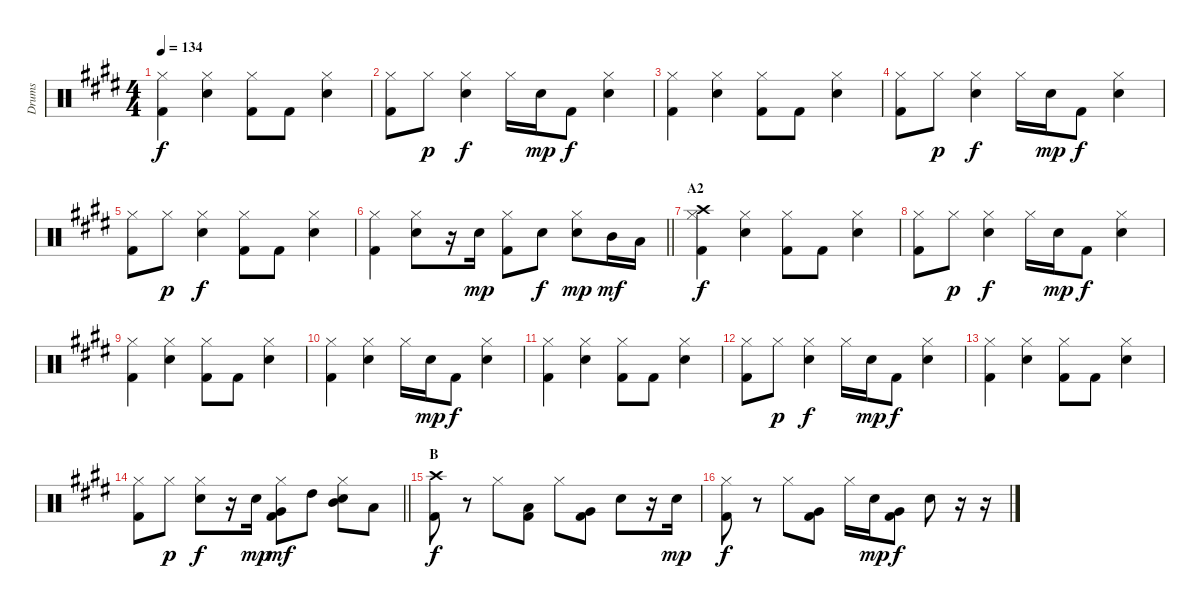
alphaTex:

\track ("Drums" "Drums") {instrument percussion}
\staff {score}
\articulation defaults
\ts (4 4)
\tempo 134
\clef neutral
\ks e
("Hi-Hat (closed)" "Kick (hit) 2").4{dy f} ("Hi-Hat (closed)" "Electric Snare (hit)").4 ("Hi-Hat (closed)" "Kick (hit) 2").8 "Kick (hit) 2".8 ("Hi-Hat (closed)" "Electric Snare (hit)").4 |
("Hi-Hat (closed)" "Kick (hit) 2").8 "Hi-Hat (closed)".8{dy p} ("Hi-Hat (closed)" "Electric Snare (hit)").4{dy f} "Hi-Hat (closed)".16 "Electric Snare (hit)".16{dy mp} "Kick (hit) 2".8{dy f} ("Hi-Hat (closed)" "Electric Snare (hit)").4 |
("Hi-Hat (closed)" "Kick (hit) 2").4 ("Hi-Hat (closed)" "Electric Snare (hit)").4 ("Hi-Hat (closed)" "Kick (hit) 2").8 "Kick (hit) 2".8 ("Hi-Hat (closed)" "Electric Snare (hit)").4 |
("Hi-Hat (closed)" "Kick (hit) 2").8 "Hi-Hat (closed)".8{dy p} ("Hi-Hat (closed)" "Electric Snare (hit)").4{dy f} "Hi-Hat (closed)".16 "Electric Snare (hit)".16{dy mp} "Kick (hit) 2".8{dy f} ("Hi-Hat (closed)" "Electric Snare (hit)").4 |
("Hi-Hat (closed)" "Kick (hit) 2").8 "Hi-Hat (closed)".8{dy p} ("Hi-Hat (closed)" "Electric Snare (hit)").4{dy f} ("Hi-Hat (closed)" "Kick (hit) 2").8 "Kick (hit) 2".8 ("Hi-Hat (closed)" "Electric Snare (hit)").4 |
\barLineRight lightlight
("Hi-Hat (closed)" "Kick (hit) 2").4 ("Hi-Hat (closed)" "Electric Snare (hit)").8 r.16 "Electric Snare (hit)".16{dy mp} ("Hi-Hat (closed)" "Kick (hit) 2").8 "Electric Snare (hit)".8{dy f} ("Hi-Hat (closed)" "Electric Snare (hit)").8{dy mp} "Mid Tom (hit)".16{dy mf} "Low Tom (hit)".16 |
\section ("" "A2")
("Hi-Hat (closed)" "Crash high (hit)" "Kick (hit) 2").4{dy f} ("Hi-Hat (closed)" "Electric Snare (hit)").4 ("Hi-Hat (closed)" "Kick (hit) 2").8 "Kick (hit) 2".8 ("Hi-Hat (closed)" "Electric Snare (hit)").4 |
("Hi-Hat (closed)" "Kick (hit) 2").8 "Hi-Hat (closed)".8{dy p} ("Hi-Hat (closed)" "Electric Snare (hit)").4{dy f} "Hi-Hat (closed)".16 "Electric Snare (hit)".16{dy mp} "Kick (hit) 2".8{dy f} ("Hi-Hat (closed)" "Electric Snare (hit)").4 |
("Hi-Hat (closed)" "Kick (hit) 2").4 ("Hi-Hat (closed)" "Electric Snare (hit)").4 ("Hi-Hat (closed)" "Kick (hit) 2").8 "Kick (hit) 2".8 ("Hi-Hat (closed)" "Electric Snare (hit)").4 |
("Hi-Hat (closed)" "Kick (hit) 2").4 ("Hi-Hat (closed)" "Electric Snare (hit)").4 "Hi-Hat (closed)".16 "Electric Snare (hit)".16{dy mp} "Kick (hit) 2".8{dy f} ("Hi-Hat (closed)" "Electric Snare (hit)").4 |
("Hi-Hat (closed)" "Kick (hit) 2").4 ("Hi-Hat (closed)" "Electric Snare (hit)").4 ("Hi-Hat (closed)" "Kick (hit) 2").8 "Kick (hit) 2".8 ("Hi-Hat (closed)" "Electric Snare (hit)").4 |
("Hi-Hat (closed)" "Kick (hit) 2").8 "Hi-Hat (closed)".8{dy p} ("Hi-Hat (closed)" "Electric Snare (hit)").4{dy f} "Hi-Hat (closed)".16 "Electric Snare (hit)".16{dy mp} "Kick (hit) 2".8{dy f} ("Hi-Hat (closed)" "Electric Snare (hit)").4 |
("Hi-Hat (closed)" "Kick (hit) 2").4 ("Hi-Hat (closed)" "Electric Snare (hit)").4 ("Hi-Hat (closed)" "Kick (hit) 2").8 "Kick (hit) 2".8 ("Hi-Hat (closed)" "Electric Snare (hit)").4 |
\barLineRight lightlight
("Hi-Hat (closed)" "Kick (hit) 2").8 "Hi-Hat (closed)".8{dy p} ("Hi-Hat (closed)" "Electric Snare (hit)").8{dy f} r.16 "Electric Snare (hit)".16{dy mp} ("Hi-Hat (closed)" "Very Low Tom (hit)" "Kick (hit) 2").8{dy mf} "High Tom (hit)".8 ("Hi-Hat (closed)" "Mid Tom (hit)" "Electric Snare (hit)").8 "Low Tom (hit)".8 |
\section ("" "B")
("Crash high (hit)" "Kick (hit) 2").8{dy f} r.8 "Hi-Hat (closed)".8 ("Low Tom (hit)" "Kick (hit) 2").8 "Hi-Hat (closed)".8 ("Very Low Tom (hit)" "Kick (hit) 2").8 "Electric Snare (hit)".8 r.16 "Electric Snare (hit)".16{dy mp} |
("Hi-Hat (closed)" "Kick (hit) 2").8{dy f} r.8 "Hi-Hat (closed)".8 ("Very Low Tom (hit)" "Kick (hit) 2").8 "Hi-Hat (closed)".16 "Electric Snare (hit)".16{dy mp} ("Very Low Tom (hit)" "Kick (hit) 2").8{dy f} "Electric Snare (hit)".8 r.16 r.16
